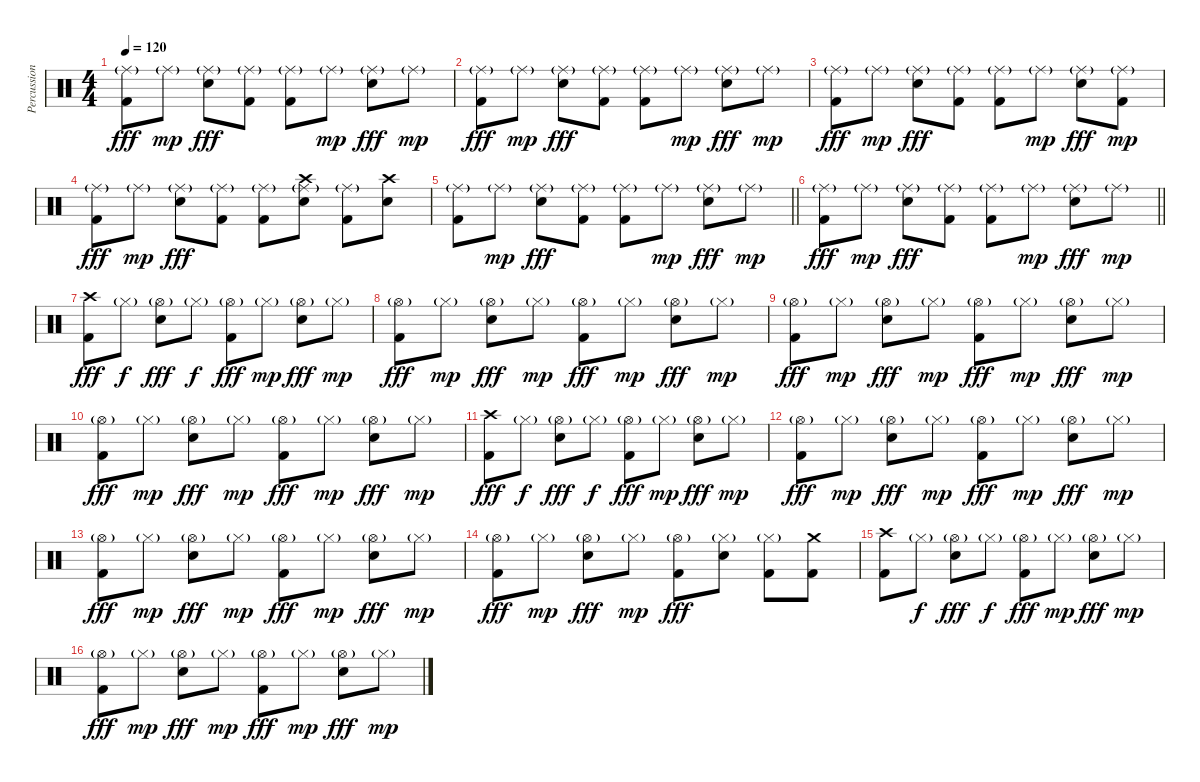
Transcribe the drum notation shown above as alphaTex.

\track ("Percussion" "Percussion") {instrument percussion}
\staff {score}
\articulation defaults
\ts (4 4)
\tempo 120
\clef neutral
\ks c
("Ride (middle)"{g} "Kick (hit) 2").8{dy fff} "Ride (middle)"{g}.8{dy mp} ("Ride (middle)"{g} "Electric Snare (hit)").8{dy fff} ("Ride (middle)"{g} "Kick (hit) 2").8 ("Ride (middle)"{g} "Kick (hit) 2").8 "Ride (middle)"{g}.8{dy mp} ("Ride (middle)"{g} "Electric Snare (hit)").8{dy fff} "Ride (middle)"{g}.8{dy mp} |
("Ride (middle)"{g} "Kick (hit) 2").8{dy fff} "Ride (middle)"{g}.8{dy mp} ("Ride (middle)"{g} "Electric Snare (hit)").8{dy fff} ("Ride (middle)"{g} "Kick (hit) 2").8 ("Ride (middle)"{g} "Kick (hit) 2").8 "Ride (middle)"{g}.8{dy mp} ("Ride (middle)"{g} "Electric Snare (hit)").8{dy fff} "Ride (middle)"{g}.8{dy mp} |
("Ride (middle)"{g} "Kick (hit) 2").8{dy fff} "Ride (middle)"{g}.8{dy mp} ("Ride (middle)"{g} "Electric Snare (hit)").8{dy fff} ("Ride (middle)"{g} "Kick (hit) 2").8 ("Ride (middle)"{g} "Kick (hit) 2").8 "Ride (middle)"{g}.8{dy mp} ("Ride (middle)"{g} "Electric Snare (hit)").8{dy fff} ("Ride (middle)"{g} "Kick (hit) 2").8{dy mp} |
("Ride (middle)"{g} "Kick (hit) 2").8{dy fff} "Ride (middle)"{g}.8{dy mp} ("Ride (middle)"{g} "Electric Snare (hit)").8{dy fff} ("Ride (middle)"{g} "Kick (hit) 2").8 ("Ride (middle)"{g} "Kick (hit) 2").8 ("Crash high (hit)" "Ride (middle)"{g} "Electric Snare (hit)").8 ("Ride (middle)"{g} "Kick (hit) 2").8 ("Crash high (hit)" "Electric Snare (hit)").8 |
\barLineRight lightlight
("Ride (middle)"{g} "Kick (hit) 2").8 "Ride (middle)"{g}.8{dy mp} ("Ride (middle)"{g} "Electric Snare (hit)").8{dy fff} ("Ride (middle)"{g} "Kick (hit) 2").8 ("Ride (middle)"{g} "Kick (hit) 2").8 "Ride (middle)"{g}.8{dy mp} ("Ride (middle)"{g} "Electric Snare (hit)").8{dy fff} "Ride (middle)"{g}.8{dy mp} |
\barLineRight lightlight
("Ride (middle)"{g} "Kick (hit) 2").8{dy fff} "Ride (middle)"{g}.8{dy mp} ("Ride (middle)"{g} "Electric Snare (hit)").8{dy fff} ("Ride (middle)"{g} "Kick (hit) 2").8 ("Ride (middle)"{g} "Kick (hit) 2").8 "Ride (middle)"{g}.8{dy mp} ("Ride (middle)"{g} "Electric Snare (hit)").8{dy fff} "Ride (middle)"{g}.8{dy mp} |
("Crash high (hit)" "Kick (hit) 2").8{dy fff} "Hi-Hat (closed)"{g}.8{dy f} ("Hi-Hat (open)"{g} "Electric Snare (hit)").8{dy fff} "Hi-Hat (closed)"{g}.8{dy f} ("Hi-Hat (open)"{g} "Kick (hit) 2").8{dy fff} "Hi-Hat (closed)"{g}.8{dy mp} ("Hi-Hat (open)"{g} "Electric Snare (hit)").8{dy fff} "Hi-Hat (closed)"{g}.8{dy mp} |
("Hi-Hat (open)"{g} "Kick (hit) 2").8{dy fff} "Hi-Hat (closed)"{g}.8{dy mp} ("Hi-Hat (open)"{g} "Electric Snare (hit)").8{dy fff} "Hi-Hat (closed)"{g}.8{dy mp} ("Hi-Hat (open)"{g} "Kick (hit) 2").8{dy fff} "Hi-Hat (closed)"{g}.8{dy mp} ("Hi-Hat (open)"{g} "Electric Snare (hit)").8{dy fff} "Hi-Hat (closed)"{g}.8{dy mp} |
("Hi-Hat (open)"{g} "Kick (hit) 2").8{dy fff} "Hi-Hat (closed)"{g}.8{dy mp} ("Hi-Hat (open)"{g} "Electric Snare (hit)").8{dy fff} "Hi-Hat (closed)"{g}.8{dy mp} ("Hi-Hat (open)"{g} "Kick (hit) 2").8{dy fff} "Hi-Hat (closed)"{g}.8{dy mp} ("Hi-Hat (open)"{g} "Electric Snare (hit)").8{dy fff} "Hi-Hat (closed)"{g}.8{dy mp} |
("Hi-Hat (open)"{g} "Kick (hit) 2").8{dy fff} "Hi-Hat (closed)"{g}.8{dy mp} ("Hi-Hat (open)"{g} "Electric Snare (hit)").8{dy fff} "Hi-Hat (closed)"{g}.8{dy mp} ("Hi-Hat (open)"{g} "Kick (hit) 2").8{dy fff} "Hi-Hat (closed)"{g}.8{dy mp} ("Hi-Hat (open)"{g} "Electric Snare (hit)").8{dy fff} "Hi-Hat (closed)"{g}.8{dy mp} |
("Crash high (hit)" "Kick (hit) 2").8{dy fff} "Hi-Hat (closed)"{g}.8{dy f} ("Hi-Hat (open)"{g} "Electric Snare (hit)").8{dy fff} "Hi-Hat (closed)"{g}.8{dy f} ("Hi-Hat (open)"{g} "Kick (hit) 2").8{dy fff} "Hi-Hat (closed)"{g}.8{dy mp} ("Hi-Hat (open)"{g} "Electric Snare (hit)").8{dy fff} "Hi-Hat (closed)"{g}.8{dy mp} |
("Hi-Hat (open)"{g} "Kick (hit) 2").8{dy fff} "Hi-Hat (closed)"{g}.8{dy mp} ("Hi-Hat (open)"{g} "Electric Snare (hit)").8{dy fff} "Hi-Hat (closed)"{g}.8{dy mp} ("Hi-Hat (open)"{g} "Kick (hit) 2").8{dy fff} "Hi-Hat (closed)"{g}.8{dy mp} ("Hi-Hat (open)"{g} "Electric Snare (hit)").8{dy fff} "Hi-Hat (closed)"{g}.8{dy mp} |
("Hi-Hat (open)"{g} "Kick (hit) 2").8{dy fff} "Hi-Hat (closed)"{g}.8{dy mp} ("Hi-Hat (open)"{g} "Electric Snare (hit)").8{dy fff} "Hi-Hat (closed)"{g}.8{dy mp} ("Hi-Hat (open)"{g} "Kick (hit) 2").8{dy fff} "Hi-Hat (closed)"{g}.8{dy mp} ("Hi-Hat (open)"{g} "Electric Snare (hit)").8{dy fff} "Hi-Hat (closed)"{g}.8{dy mp} |
("Hi-Hat (open)"{g} "Kick (hit) 2").8{dy fff} "Hi-Hat (closed)"{g}.8{dy mp} ("Hi-Hat (open)"{g} "Electric Snare (hit)").8{dy fff} "Hi-Hat (closed)"{g}.8{dy mp} ("Hi-Hat (open)"{g} "Kick (hit) 2").8{dy fff} ("Hi-Hat (closed)"{g} "Electric Snare (hit)").8 ("Hi-Hat (closed)"{g} "Kick (hit) 2").8 ("Crash medium (hit)" "Kick (hit) 2").8 |
("Crash high (hit)" "Kick (hit) 2").8 "Hi-Hat (closed)"{g}.8{dy f} ("Hi-Hat (open)"{g} "Electric Snare (hit)").8{dy fff} "Hi-Hat (closed)"{g}.8{dy f} ("Hi-Hat (open)"{g} "Kick (hit) 2").8{dy fff} "Hi-Hat (closed)"{g}.8{dy mp} ("Hi-Hat (open)"{g} "Electric Snare (hit)").8{dy fff} "Hi-Hat (closed)"{g}.8{dy mp} |
("Hi-Hat (open)"{g} "Kick (hit) 2").8{dy fff} "Hi-Hat (closed)"{g}.8{dy mp} ("Hi-Hat (open)"{g} "Electric Snare (hit)").8{dy fff} "Hi-Hat (closed)"{g}.8{dy mp} ("Hi-Hat (open)"{g} "Kick (hit) 2").8{dy fff} "Hi-Hat (closed)"{g}.8{dy mp} ("Hi-Hat (open)"{g} "Electric Snare (hit)").8{dy fff} "Hi-Hat (closed)"{g}.8{dy mp}
